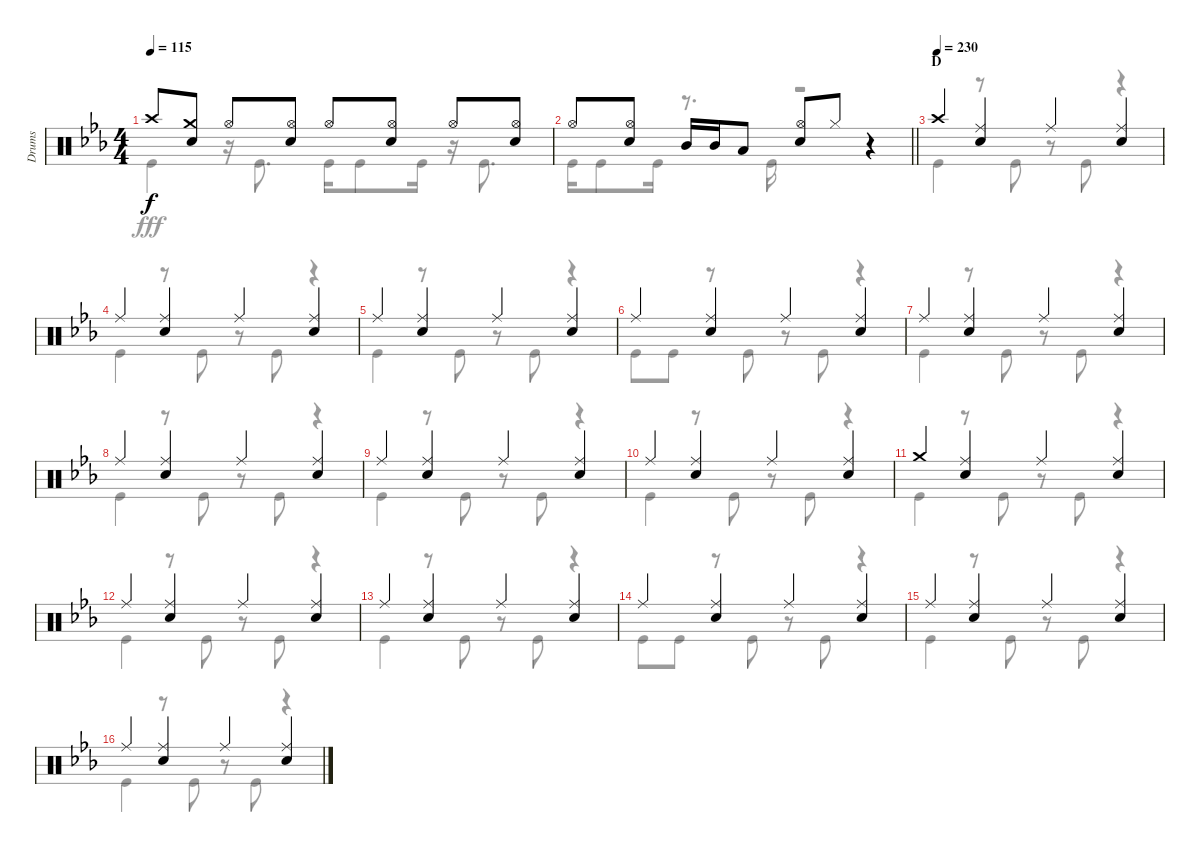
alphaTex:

\track ("Drums" "Drums") {instrument percussion}
\staff {score}
\articulation defaults
\voice
\ts (4 4)
\tempo 115
\clef neutral
\ks eb "Crash high (hit)".8{dy f}
("Crash medium (hit)" "Snare (hit) 2").8 "Hi-Hat (open)".8 ("Hi-Hat (open)" "Snare (hit) 2").8 "Hi-Hat (open)".8 ("Hi-Hat (open)" "Snare (hit) 2").8 "Hi-Hat (open)".8 ("Hi-Hat (open)" "Snare (hit) 2").8 |
\barLineRight lightlight "Hi-Hat (open)".8
("Hi-Hat (open)" "Snare (hit) 2").8 "Mid Tom (hit)".16 "Mid Tom (hit)".16 "Low Tom (hit)".8 ("Hi-Hat (open)" "Snare (hit) 2").8 "Hi-Hat (closed)".8 r.4 |
\section ("" "D")
\tempo (230)
"Crash high (hit)".4 ("Ride (middle)" "Snare (hit) 2").4 "Ride (middle)".4 ("Ride (middle)" "Snare (hit) 2").4 |
"Ride (middle)".4 ("Ride (middle)" "Snare (hit) 2").4 "Ride (middle)".4 ("Ride (middle)" "Snare (hit) 2").4 |
"Ride (middle)".4 ("Ride (middle)" "Snare (hit) 2").4 "Ride (middle)".4 ("Ride (middle)" "Snare (hit) 2").4 |
"Ride (middle)".4 ("Ride (middle)" "Snare (hit) 2").4 "Ride (middle)".4 ("Ride (middle)" "Snare (hit) 2").4 |
"Ride (middle)".4 ("Ride (middle)" "Snare (hit) 2").4 "Ride (middle)".4 ("Ride (middle)" "Snare (hit) 2").4 |
"Ride (middle)".4 ("Ride (middle)" "Snare (hit) 2").4 "Ride (middle)".4 ("Ride (middle)" "Snare (hit) 2").4 |
"Ride (middle)".4 ("Ride (middle)" "Snare (hit) 2").4 "Ride (middle)".4 ("Ride (middle)" "Snare (hit) 2").4 |
"Ride (middle)".4 ("Ride (middle)" "Snare (hit) 2").4 "Ride (middle)".4 ("Ride (middle)" "Snare (hit) 2").4 |
"Crash medium (hit)".4 ("Ride (middle)" "Snare (hit) 2").4 "Ride (middle)".4 ("Ride (middle)" "Snare (hit) 2").4 |
"Ride (middle)".4 ("Ride (middle)" "Snare (hit) 2").4 "Ride (middle)".4 ("Ride (middle)" "Snare (hit) 2").4 |
"Ride (middle)".4 ("Ride (middle)" "Snare (hit) 2").4 "Ride (middle)".4 ("Ride (middle)" "Snare (hit) 2").4 |
"Ride (middle)".4 ("Ride (middle)" "Snare (hit) 2").4 "Ride (middle)".4 ("Ride (middle)" "Snare (hit) 2").4 |
"Ride (middle)".4 ("Ride (middle)" "Snare (hit) 2").4 "Ride (middle)".4 ("Ride (middle)" "Snare (hit) 2").4 |
"Ride (middle)".4 ("Ride (middle)" "Snare (hit) 2").4 "Ride (middle)".4 ("Ride (middle)" "Snare (hit) 2").4
\voice
\clef neutral
\ottava regular
\simile none
\ks eb "Kick (hit)".4{dy fff}
r.16 "Kick (hit)".8{d} "Kick (hit)".16 "Kick (hit)".8 "Kick (hit)".16 r.16 "Kick (hit)".8{d} |
\barLineRight lightlight "Kick (hit)".16 "Kick (hit)".8 "Kick (hit)".16
r.8{d} "Kick (hit)".16 r.2 |
"Kick (hit)".4 r.8 "Kick (hit)".8 r.8 "Kick (hit)".8 r.4 |
"Kick (hit)".4 r.8 "Kick (hit)".8 r.8 "Kick (hit)".8 r.4 |
"Kick (hit)".4 r.8 "Kick (hit)".8 r.8 "Kick (hit)".8 r.4 |
"Kick (hit)".8 "Kick (hit)".8 r.8 "Kick (hit)".8 r.8 "Kick (hit)".8 r.4 |
"Kick (hit)".4 r.8 "Kick (hit)".8 r.8 "Kick (hit)".8 r.4 |
"Kick (hit)".4 r.8 "Kick (hit)".8 r.8 "Kick (hit)".8 r.4 |
"Kick (hit)".4 r.8 "Kick (hit)".8 r.8 "Kick (hit)".8 r.4 |
"Kick (hit)".4 r.8 "Kick (hit)".8 r.8 "Kick (hit)".8 r.4 |
"Kick (hit)".4 r.8 "Kick (hit)".8 r.8 "Kick (hit)".8 r.4 |
"Kick (hit)".4 r.8 "Kick (hit)".8 r.8 "Kick (hit)".8 r.4 |
"Kick (hit)".4 r.8 "Kick (hit)".8 r.8 "Kick (hit)".8 r.4 |
"Kick (hit)".8 "Kick (hit)".8 r.8 "Kick (hit)".8 r.8 "Kick (hit)".8 r.4 |
"Kick (hit)".4 r.8 "Kick (hit)".8 r.8 "Kick (hit)".8 r.4 |
"Kick (hit)".4 r.8 "Kick (hit)".8 r.8 "Kick (hit)".8 r.4
